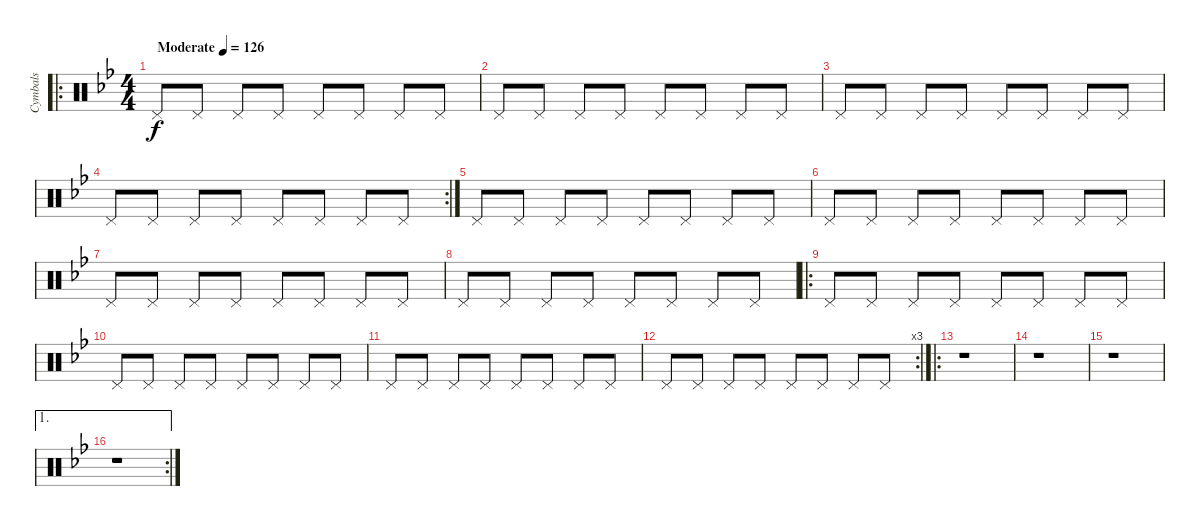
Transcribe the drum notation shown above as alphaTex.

\track ("Cymbals" "Cymbals") {instrument percussion}
\staff {score}
\articulation defaults
\ro
\ts (4 4)
\tempo (126 "Moderate")
\clef neutral
\ks bb "Pedal Hi-Hat (hit)".8{dy f} "Pedal Hi-Hat (hit)".8 "Pedal Hi-Hat (hit)".8 "Pedal Hi-Hat (hit)".8 "Pedal Hi-Hat (hit)".8 "Pedal Hi-Hat (hit)".8 "Pedal Hi-Hat (hit)".8 "Pedal Hi-Hat (hit)".8
|
"Pedal Hi-Hat (hit)".8 "Pedal Hi-Hat (hit)".8 "Pedal Hi-Hat (hit)".8 "Pedal Hi-Hat (hit)".8 "Pedal Hi-Hat (hit)".8 "Pedal Hi-Hat (hit)".8 "Pedal Hi-Hat (hit)".8 "Pedal Hi-Hat (hit)".8 |
"Pedal Hi-Hat (hit)".8 "Pedal Hi-Hat (hit)".8 "Pedal Hi-Hat (hit)".8 "Pedal Hi-Hat (hit)".8 "Pedal Hi-Hat (hit)".8 "Pedal Hi-Hat (hit)".8 "Pedal Hi-Hat (hit)".8 "Pedal Hi-Hat (hit)".8 |
\rc 2 "Pedal Hi-Hat (hit)".8 "Pedal Hi-Hat (hit)".8 "Pedal Hi-Hat (hit)".8 "Pedal Hi-Hat (hit)".8 "Pedal Hi-Hat (hit)".8 "Pedal Hi-Hat (hit)".8 "Pedal Hi-Hat (hit)".8 "Pedal Hi-Hat (hit)".8
|
"Pedal Hi-Hat (hit)".8 "Pedal Hi-Hat (hit)".8 "Pedal Hi-Hat (hit)".8 "Pedal Hi-Hat (hit)".8 "Pedal Hi-Hat (hit)".8 "Pedal Hi-Hat (hit)".8 "Pedal Hi-Hat (hit)".8 "Pedal Hi-Hat (hit)".8 |
"Pedal Hi-Hat (hit)".8 "Pedal Hi-Hat (hit)".8 "Pedal Hi-Hat (hit)".8 "Pedal Hi-Hat (hit)".8 "Pedal Hi-Hat (hit)".8 "Pedal Hi-Hat (hit)".8 "Pedal Hi-Hat (hit)".8 "Pedal Hi-Hat (hit)".8 |
"Pedal Hi-Hat (hit)".8 "Pedal Hi-Hat (hit)".8 "Pedal Hi-Hat (hit)".8 "Pedal Hi-Hat (hit)".8 "Pedal Hi-Hat (hit)".8 "Pedal Hi-Hat (hit)".8 "Pedal Hi-Hat (hit)".8 "Pedal Hi-Hat (hit)".8 |
"Pedal Hi-Hat (hit)".8 "Pedal Hi-Hat (hit)".8 "Pedal Hi-Hat (hit)".8 "Pedal Hi-Hat (hit)".8 "Pedal Hi-Hat (hit)".8 "Pedal Hi-Hat (hit)".8 "Pedal Hi-Hat (hit)".8 "Pedal Hi-Hat (hit)".8 |
\ro "Pedal Hi-Hat (hit)".8 "Pedal Hi-Hat (hit)".8 "Pedal Hi-Hat (hit)".8 "Pedal Hi-Hat (hit)".8 "Pedal Hi-Hat (hit)".8 "Pedal Hi-Hat (hit)".8 "Pedal Hi-Hat (hit)".8 "Pedal Hi-Hat (hit)".8
|
"Pedal Hi-Hat (hit)".8 "Pedal Hi-Hat (hit)".8 "Pedal Hi-Hat (hit)".8 "Pedal Hi-Hat (hit)".8 "Pedal Hi-Hat (hit)".8 "Pedal Hi-Hat (hit)".8 "Pedal Hi-Hat (hit)".8 "Pedal Hi-Hat (hit)".8 |
"Pedal Hi-Hat (hit)".8 "Pedal Hi-Hat (hit)".8 "Pedal Hi-Hat (hit)".8 "Pedal Hi-Hat (hit)".8 "Pedal Hi-Hat (hit)".8 "Pedal Hi-Hat (hit)".8 "Pedal Hi-Hat (hit)".8 "Pedal Hi-Hat (hit)".8 |
\rc 3 "Pedal Hi-Hat (hit)".8 "Pedal Hi-Hat (hit)".8 "Pedal Hi-Hat (hit)".8 "Pedal Hi-Hat (hit)".8 "Pedal Hi-Hat (hit)".8 "Pedal Hi-Hat (hit)".8 "Pedal Hi-Hat (hit)".8 "Pedal Hi-Hat (hit)".8
|
\ro
r.1 |
r.1 |
r.1 |
\ae 1
\rc 2
r.1
